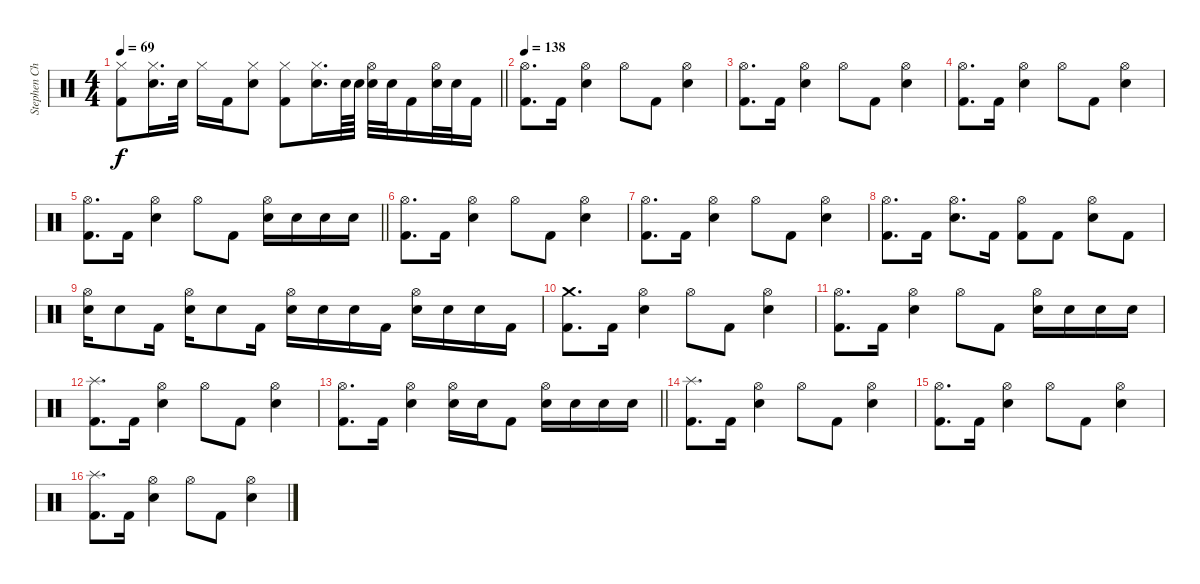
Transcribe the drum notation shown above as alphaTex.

\track ("Stephen Chopek" "Stephen Ch") {instrument percussion}
\staff {score}
\articulation defaults
\ts (4 4)
\tempo 69
\clef neutral
\barLineRight lightlight
\ks c
("Hi-Hat (closed)" "Kick (hit) 2").8{dy f} ("Hi-Hat (closed)" "Snare (hit) 2").16{d} "Snare (hit) 2".32 "Hi-Hat (closed)".16 "Kick (hit) 2".16 ("Hi-Hat (closed)" "Snare (hit) 2").8 ("Hi-Hat (closed)" "Kick (hit) 2").8 ("Hi-Hat (closed)" "Snare (hit) 2").16{d} "Snare (hit) 2".64 "Snare (hit) 2".64 ("Hi-Hat (open)" "Snare (hit) 2").32 "Snare (hit) 2".32 "Kick (hit) 2".16 ("Hi-Hat (open)" "Snare (hit) 2").32 "Snare (hit) 2".32 "Kick (hit) 2".16 |
\tempo 138
("Hi-Hat (open)" "Kick (hit) 2").8{d} "Kick (hit) 2".16 ("Hi-Hat (open)" "Snare (hit) 2").4 "Hi-Hat (open)".8 "Kick (hit) 2".8 ("Hi-Hat (open)" "Snare (hit) 2").4 |
("Hi-Hat (open)" "Kick (hit) 2").8{d} "Kick (hit) 2".16 ("Hi-Hat (open)" "Snare (hit) 2").4 "Hi-Hat (open)".8 "Kick (hit) 2".8 ("Hi-Hat (open)" "Snare (hit) 2").4 |
("Hi-Hat (open)" "Kick (hit) 2").8{d} "Kick (hit) 2".16 ("Hi-Hat (open)" "Snare (hit) 2").4 "Hi-Hat (open)".8 "Kick (hit) 2".8 ("Hi-Hat (open)" "Snare (hit) 2").4 |
\barLineRight lightlight
("Hi-Hat (open)" "Kick (hit) 2").8{d} "Kick (hit) 2".16 ("Hi-Hat (open)" "Snare (hit) 2").4 "Hi-Hat (open)".8 "Kick (hit) 2".8 ("Hi-Hat (open)" "Snare (hit) 2").16 "Snare (hit) 2".16 "Snare (hit) 2".16 "Snare (hit) 2".16 |
("Hi-Hat (open)" "Kick (hit) 2").8{d} "Kick (hit) 2".16 ("Hi-Hat (open)" "Snare (hit) 2").4 "Hi-Hat (open)".8 "Kick (hit) 2".8 ("Hi-Hat (open)" "Snare (hit) 2").4 |
("Hi-Hat (open)" "Kick (hit) 2").8{d} "Kick (hit) 2".16 ("Hi-Hat (open)" "Snare (hit) 2").4 "Hi-Hat (open)".8 "Kick (hit) 2".8 ("Hi-Hat (open)" "Snare (hit) 2").4 |
("Hi-Hat (open)" "Kick (hit) 2").8{d} "Kick (hit) 2".16 ("Hi-Hat (open)" "Snare (hit) 2").8{d} "Kick (hit) 2".16 ("Hi-Hat (open)" "Kick (hit) 2").8 "Kick (hit) 2".8 ("Hi-Hat (open)" "Snare (hit) 2").8 "Kick (hit) 2".8 |
("Hi-Hat (open)" "Snare (hit) 2").16 "Snare (hit) 2".8 "Kick (hit) 2".16 ("Hi-Hat (open)" "Snare (hit) 2").16 "Snare (hit) 2".8 "Kick (hit) 2".16 ("Hi-Hat (open)" "Snare (hit) 2").16 "Snare (hit) 2".16 "Snare (hit) 2".16 "Kick (hit) 2".16 ("Hi-Hat (open)" "Snare (hit) 2").16 "Snare (hit) 2".16 "Snare (hit) 2".16 "Kick (hit) 2".16 |
("Crash medium (hit)" "Kick (hit) 2").8{d} "Kick (hit) 2".16 ("Hi-Hat (open)" "Snare (hit) 2").4 "Hi-Hat (open)".8 "Kick (hit) 2".8 ("Hi-Hat (open)" "Snare (hit) 2").4 |
("Hi-Hat (open)" "Kick (hit) 2").8{d} "Kick (hit) 2".16 ("Hi-Hat (open)" "Snare (hit) 2").4 "Hi-Hat (open)".8 "Kick (hit) 2".8 ("Hi-Hat (open)" "Snare (hit) 2").16 "Snare (hit) 2".16 "Snare (hit) 2".16 "Snare (hit) 2".16 |
("Splash (hit)" "Kick (hit) 2").8{d} "Kick (hit) 2".16 ("Hi-Hat (open)" "Snare (hit) 2").4 "Hi-Hat (open)".8 "Kick (hit) 2".8 ("Hi-Hat (open)" "Snare (hit) 2").4 |
\barLineRight lightlight
("Hi-Hat (open)" "Kick (hit) 2").8{d} "Kick (hit) 2".16 ("Hi-Hat (open)" "Snare (hit) 2").4 ("Hi-Hat (open)" "Snare (hit) 2").16 "Snare (hit) 2".16 "Kick (hit) 2".8 ("Hi-Hat (open)" "Snare (hit) 2").16 "Snare (hit) 2".16 "Snare (hit) 2".16 "Snare (hit) 2".16 |
("Splash (hit)" "Kick (hit) 2").8{d} "Kick (hit) 2".16 ("Hi-Hat (open)" "Snare (hit) 2").4 "Hi-Hat (open)".8 "Kick (hit) 2".8 ("Hi-Hat (open)" "Snare (hit) 2").4 |
("Hi-Hat (open)" "Kick (hit) 2").8{d} "Kick (hit) 2".16 ("Hi-Hat (open)" "Snare (hit) 2").4 "Hi-Hat (open)".8 "Kick (hit) 2".8 ("Hi-Hat (open)" "Snare (hit) 2").4 |
("Splash (hit)" "Kick (hit) 2").8{d} "Kick (hit) 2".16 ("Hi-Hat (open)" "Snare (hit) 2").4 "Hi-Hat (open)".8 "Kick (hit) 2".8 ("Hi-Hat (open)" "Snare (hit) 2").4
